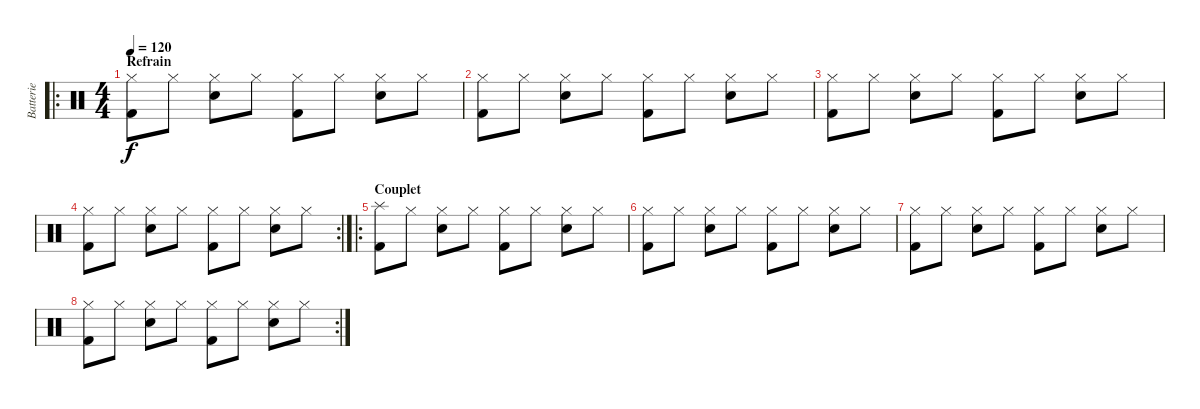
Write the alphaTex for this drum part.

\track ("Batterie" "Batterie") {instrument percussion}
\staff {score}
\articulation defaults
\ro
\ts (4 4)
\section ("" "Refrain")
\tempo 120
\clef neutral
\ks c
("Kick (hit) 2" "Hi-Hat (closed)").8{dy f} "Hi-Hat (closed)".8 ("Electric Snare (hit)" "Hi-Hat (closed)").8 "Hi-Hat (closed)".8 ("Kick (hit) 2" "Hi-Hat (closed)").8 "Hi-Hat (closed)".8 ("Electric Snare (hit)" "Hi-Hat (closed)").8 "Hi-Hat (closed)".8 |
("Kick (hit) 2" "Hi-Hat (closed)").8 "Hi-Hat (closed)".8 ("Electric Snare (hit)" "Hi-Hat (closed)").8 "Hi-Hat (closed)".8 ("Kick (hit) 2" "Hi-Hat (closed)").8 "Hi-Hat (closed)".8 ("Electric Snare (hit)" "Hi-Hat (closed)").8 "Hi-Hat (closed)".8 |
("Kick (hit) 2" "Hi-Hat (closed)").8 "Hi-Hat (closed)".8 ("Electric Snare (hit)" "Hi-Hat (closed)").8 "Hi-Hat (closed)".8 ("Kick (hit) 2" "Hi-Hat (closed)").8 "Hi-Hat (closed)".8 ("Electric Snare (hit)" "Hi-Hat (closed)").8 "Hi-Hat (closed)".8 |
\rc 2
("Kick (hit) 2" "Hi-Hat (closed)").8 "Hi-Hat (closed)".8 ("Electric Snare (hit)" "Hi-Hat (closed)").8 "Hi-Hat (closed)".8 ("Kick (hit) 2" "Hi-Hat (closed)").8 "Hi-Hat (closed)".8 ("Electric Snare (hit)" "Hi-Hat (closed)").8 "Hi-Hat (closed)".8 |
\ro
\section ("" "Couplet")
("Kick (hit) 2" "Splash (hit)").8 "Hi-Hat (closed)".8 ("Electric Snare (hit)" "Hi-Hat (closed)").8 "Hi-Hat (closed)".8 ("Kick (hit) 2" "Hi-Hat (closed)").8 "Hi-Hat (closed)".8 ("Electric Snare (hit)" "Hi-Hat (closed)").8 "Hi-Hat (closed)".8 |
("Kick (hit) 2" "Hi-Hat (closed)").8 "Hi-Hat (closed)".8 ("Electric Snare (hit)" "Hi-Hat (closed)").8 "Hi-Hat (closed)".8 ("Kick (hit) 2" "Hi-Hat (closed)").8 "Hi-Hat (closed)".8 ("Electric Snare (hit)" "Hi-Hat (closed)").8 "Hi-Hat (closed)".8 |
("Kick (hit) 2" "Hi-Hat (closed)").8 "Hi-Hat (closed)".8 ("Electric Snare (hit)" "Hi-Hat (closed)").8 "Hi-Hat (closed)".8 ("Kick (hit) 2" "Hi-Hat (closed)").8 "Hi-Hat (closed)".8 ("Electric Snare (hit)" "Hi-Hat (closed)").8 "Hi-Hat (closed)".8 |
\rc 2
\section ("" "")
("Kick (hit) 2" "Hi-Hat (closed)").8 "Hi-Hat (closed)".8 ("Electric Snare (hit)" "Hi-Hat (closed)").8 "Hi-Hat (closed)".8 ("Kick (hit) 2" "Hi-Hat (closed)").8 "Hi-Hat (closed)".8 ("Electric Snare (hit)" "Hi-Hat (closed)").8 "Hi-Hat (closed)".8
